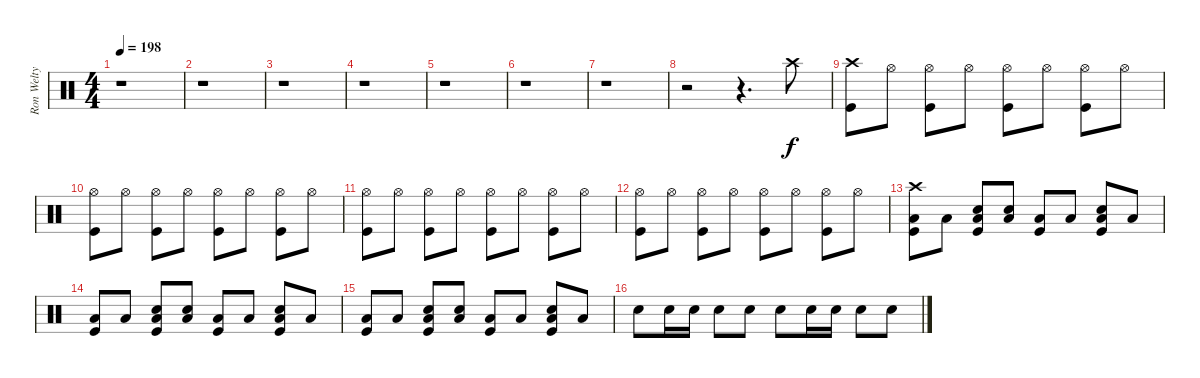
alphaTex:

\track ("Ron Welty" "Ron Welty") {instrument percussion}
\staff {score}
\articulation defaults
\ts (4 4)
\tempo 198
\clef neutral
\ks c
r.1{dy f} |
r.1 |
r.1 |
r.1 |
r.1 |
r.1 |
r.1 |
r.2 r.4{d} "Crash high (hit)".8 |
("Crash high (hit)" "Kick (hit)").8 "Hi-Hat (open)".8 ("Hi-Hat (open)" "Kick (hit)").8 "Hi-Hat (open)".8 ("Hi-Hat (open)" "Kick (hit)").8 "Hi-Hat (open)".8 ("Hi-Hat (open)" "Kick (hit)").8 "Hi-Hat (open)".8 |
("Hi-Hat (open)" "Kick (hit)").8 "Hi-Hat (open)".8 ("Hi-Hat (open)" "Kick (hit)").8 "Hi-Hat (open)".8 ("Hi-Hat (open)" "Kick (hit)").8 "Hi-Hat (open)".8 ("Hi-Hat (open)" "Kick (hit)").8 "Hi-Hat (open)".8 |
("Hi-Hat (open)" "Kick (hit)").8 "Hi-Hat (open)".8 ("Hi-Hat (open)" "Kick (hit)").8 "Hi-Hat (open)".8 ("Hi-Hat (open)" "Kick (hit)").8 "Hi-Hat (open)".8 ("Hi-Hat (open)" "Kick (hit)").8 "Hi-Hat (open)".8 |
("Hi-Hat (open)" "Kick (hit)").8 "Hi-Hat (open)".8 ("Hi-Hat (open)" "Kick (hit)").8 "Hi-Hat (open)".8 ("Hi-Hat (open)" "Kick (hit)").8 "Hi-Hat (open)".8 ("Hi-Hat (open)" "Kick (hit)").8 "Hi-Hat (open)".8 |
("Low Tom (hit)" "Kick (hit)" "Crash high (hit)").8 "Low Tom (hit)".8 ("Low Tom (hit)" "Kick (hit)" "Snare (hit) 2").8 ("Low Tom (hit)" "Snare (hit) 2").8 ("Low Tom (hit)" "Kick (hit)").8 "Low Tom (hit)".8 ("Low Tom (hit)" "Kick (hit)" "Snare (hit) 2").8 "Low Tom (hit)".8 |
("Low Tom (hit)" "Kick (hit)").8 "Low Tom (hit)".8 ("Low Tom (hit)" "Kick (hit)" "Snare (hit) 2").8 ("Low Tom (hit)" "Snare (hit) 2").8 ("Low Tom (hit)" "Kick (hit)").8 "Low Tom (hit)".8 ("Low Tom (hit)" "Kick (hit)" "Snare (hit) 2").8 "Low Tom (hit)".8 |
("Low Tom (hit)" "Kick (hit)").8 "Low Tom (hit)".8 ("Low Tom (hit)" "Kick (hit)" "Snare (hit) 2").8 ("Low Tom (hit)" "Snare (hit) 2").8 ("Low Tom (hit)" "Kick (hit)").8 "Low Tom (hit)".8 ("Low Tom (hit)" "Kick (hit)" "Snare (hit) 2").8 "Low Tom (hit)".8 |
"Snare (hit) 2".8 "Snare (hit) 2".16 "Snare (hit) 2".16 "Snare (hit) 2".8 "Snare (hit) 2".8 "Snare (hit) 2".8 "Snare (hit) 2".16 "Snare (hit) 2".16 "Snare (hit) 2".8 "Snare (hit) 2".8
